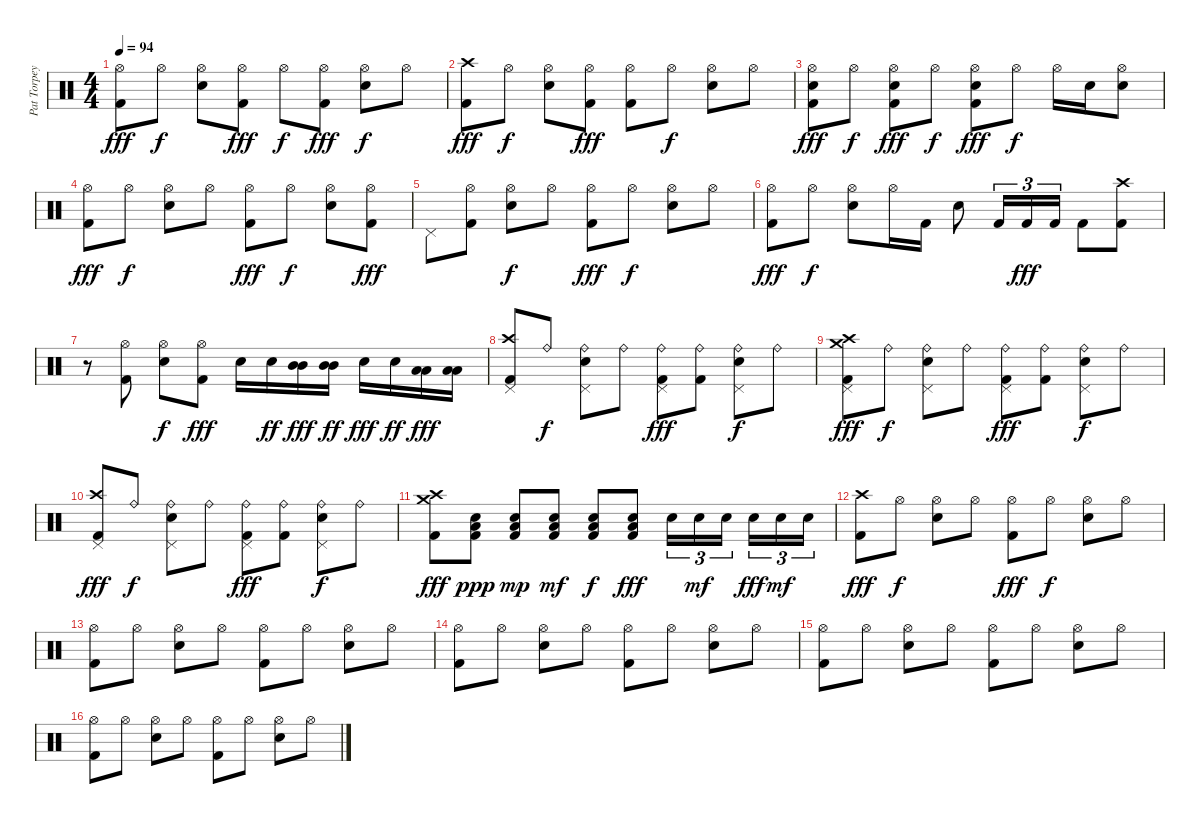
\track ("Pat Torpey (Toro)" "Pat Torpey") {instrument percussion}
\staff {score}
\articulation defaults
\ts (4 4)
\tempo 94
\clef neutral
\ks c
("Hi-Hat (open)" "Kick (hit) 2").8{dy fff} "Hi-Hat (open)".8{dy f} ("Hi-Hat (open)" "Snare (hit) 2").8 ("Hi-Hat (open)" "Kick (hit) 2").8{dy fff} "Hi-Hat (open)".8{dy f} ("Hi-Hat (open)" "Kick (hit) 2").8{dy fff} ("Hi-Hat (open)" "Snare (hit) 2").8{dy f} "Hi-Hat (open)".8 |
("Crash high (hit)" "Kick (hit) 2").8{dy fff} "Hi-Hat (open)".8{dy f} ("Hi-Hat (open)" "Snare (hit) 2").8 ("Hi-Hat (open)" "Kick (hit) 2").8{dy fff} ("Hi-Hat (open)" "Kick (hit) 2").8 "Hi-Hat (open)".8{dy f} ("Hi-Hat (open)" "Snare (hit) 2").8 "Hi-Hat (open)".8 |
("Hi-Hat (open)" "Snare (hit) 2" "Kick (hit) 2").8{dy fff} "Hi-Hat (open)".8{dy f} ("Hi-Hat (open)" "Snare (hit) 2" "Kick (hit) 2").8{dy fff} "Hi-Hat (open)".8{dy f} ("Hi-Hat (open)" "Snare (hit) 2" "Kick (hit) 2").8{dy fff} "Hi-Hat (open)".8{dy f} "Hi-Hat (open)".16 "Snare (hit) 2".16 ("Hi-Hat (open)" "Snare (hit) 2").8 |
("Hi-Hat (open)" "Kick (hit) 2").8{dy fff} "Hi-Hat (open)".8{dy f} ("Hi-Hat (open)" "Snare (hit) 2").8 "Hi-Hat (open)".8 ("Hi-Hat (open)" "Kick (hit) 2").8{dy fff} "Hi-Hat (open)".8{dy f} ("Hi-Hat (open)" "Snare (hit) 2").8 ("Hi-Hat (open)" "Kick (hit) 2").8{dy fff} |
"Pedal Hi-Hat (hit)".8 ("Hi-Hat (open)" "Kick (hit) 2").8 ("Hi-Hat (open)" "Snare (hit) 2").8{dy f} "Hi-Hat (open)".8 ("Hi-Hat (open)" "Kick (hit) 2").8{dy fff} "Hi-Hat (open)".8{dy f} ("Hi-Hat (open)" "Snare (hit) 2").8 "Hi-Hat (open)".8 |
("Hi-Hat (open)" "Kick (hit) 2").8{dy fff} "Hi-Hat (open)".8{dy f} ("Hi-Hat (open)" "Snare (hit) 2").8 "Hi-Hat (open)".16 "Kick (hit) 2".16 "Snare (hit) 2".8 "Kick (hit) 2".16{tu (3 2)} "Kick (hit) 2".16{tu (3 2) dy fff} "Kick (hit) 2".16{tu (3 2)} "Kick (hit) 2".8 ("Crash high (hit)" "Kick (hit) 2").8 |
r.8 ("Hi-Hat (open)" "Kick (hit) 2").8 ("Hi-Hat (open)" "Snare (hit) 2").8{dy f} ("Hi-Hat (open)" "Kick (hit) 2").8{dy fff} "Snare (hit) 2".16 "Snare (hit) 2".16{dy ff} ("Mid Tom (hit)" "Mid Tom (hit)").16{dy fff} ("Mid Tom (hit)" "Mid Tom (hit)").16{dy ff} "Snare (hit) 2".16{dy fff} "Snare (hit) 2".16{dy ff} ("Low Tom (hit)" "Low Tom (hit)").16{dy fff} ("Low Tom (hit)" "Low Tom (hit)").16 |
("Crash high (hit)" "Kick (hit) 2" "Pedal Hi-Hat (hit)").8 "Ride (bell)".8{dy f} ("Ride (bell)" "Snare (hit) 2" "Pedal Hi-Hat (hit)").8 "Ride (bell)".8 ("Ride (bell)" "Kick (hit) 2" "Pedal Hi-Hat (hit)").8{dy fff} ("Ride (bell)" "Kick (hit) 2").8 ("Ride (bell)" "Snare (hit) 2" "Pedal Hi-Hat (hit)").8{dy f} "Ride (bell)".8 |
("Crash high (hit)" "Crash medium (hit)" "Kick (hit) 2" "Pedal Hi-Hat (hit)").8{dy fff} "Ride (bell)".8{dy f} ("Ride (bell)" "Snare (hit) 2" "Pedal Hi-Hat (hit)").8 "Ride (bell)".8 ("Ride (bell)" "Kick (hit) 2" "Pedal Hi-Hat (hit)").8{dy fff} ("Ride (bell)" "Kick (hit) 2").8 ("Ride (bell)" "Snare (hit) 2" "Pedal Hi-Hat (hit)").8{dy f} "Ride (bell)".8 |
("Crash high (hit)" "Kick (hit) 2" "Pedal Hi-Hat (hit)").8{dy fff} "Ride (bell)".8{dy f} ("Ride (bell)" "Snare (hit) 2" "Pedal Hi-Hat (hit)").8 "Ride (bell)".8 ("Ride (bell)" "Kick (hit) 2" "Pedal Hi-Hat (hit)").8{dy fff} ("Ride (bell)" "Kick (hit) 2").8 ("Ride (bell)" "Snare (hit) 2" "Pedal Hi-Hat (hit)").8{dy f} "Ride (bell)".8 |
("Crash high (hit)" "Crash medium (hit)" "Kick (hit) 2").8{dy fff} ("Low Floor Tom (hit)" "Snare (hit) 2" "Kick (hit) 2").8{dy ppp} ("Low Floor Tom (hit)" "Snare (hit) 2" "Kick (hit) 2").8{dy mp} ("Low Floor Tom (hit)" "Snare (hit) 2" "Kick (hit) 2").8{dy mf} ("Low Floor Tom (hit)" "Snare (hit) 2" "Kick (hit) 2").8{dy f} ("Low Floor Tom (hit)" "Snare (hit) 2" "Kick (hit) 2").8{dy fff} "Snare (hit) 2".16{tu (3 2)} "Snare (hit) 2".16{tu (3 2) dy mf} "Snare (hit) 2".16{tu (3 2)} "Snare (hit) 2".16{tu (3 2) dy fff} "Snare (hit) 2".16{tu (3 2) dy mf} "Snare (hit) 2".16{tu (3 2)} |
("Crash high (hit)" "Kick (hit) 2").8{dy fff} "Hi-Hat (open)".8{dy f} ("Hi-Hat (open)" "Snare (hit) 2").8 "Hi-Hat (open)".8 ("Hi-Hat (open)" "Kick (hit) 2").8{dy fff} "Hi-Hat (open)".8{dy f} ("Hi-Hat (open)" "Snare (hit) 2").8 "Hi-Hat (open)".8 |
("Hi-Hat (open)" "Kick (hit) 2").8 "Hi-Hat (open)".8 ("Hi-Hat (open)" "Snare (hit) 2").8 "Hi-Hat (open)".8 ("Hi-Hat (open)" "Kick (hit) 2").8 "Hi-Hat (open)".8 ("Hi-Hat (open)" "Snare (hit) 2").8 "Hi-Hat (open)".8 |
("Hi-Hat (open)" "Kick (hit) 2").8 "Hi-Hat (open)".8 ("Hi-Hat (open)" "Snare (hit) 2").8 "Hi-Hat (open)".8 ("Hi-Hat (open)" "Kick (hit) 2").8 "Hi-Hat (open)".8 ("Hi-Hat (open)" "Snare (hit) 2").8 "Hi-Hat (open)".8 |
("Hi-Hat (open)" "Kick (hit) 2").8 "Hi-Hat (open)".8 ("Hi-Hat (open)" "Snare (hit) 2").8 "Hi-Hat (open)".8 ("Hi-Hat (open)" "Kick (hit) 2").8 "Hi-Hat (open)".8 ("Hi-Hat (open)" "Snare (hit) 2").8 "Hi-Hat (open)".8 |
("Hi-Hat (open)" "Kick (hit) 2").8 "Hi-Hat (open)".8 ("Hi-Hat (open)" "Snare (hit) 2").8 "Hi-Hat (open)".8 ("Hi-Hat (open)" "Kick (hit) 2").8 "Hi-Hat (open)".8 ("Hi-Hat (open)" "Snare (hit) 2").8 "Hi-Hat (open)".8
